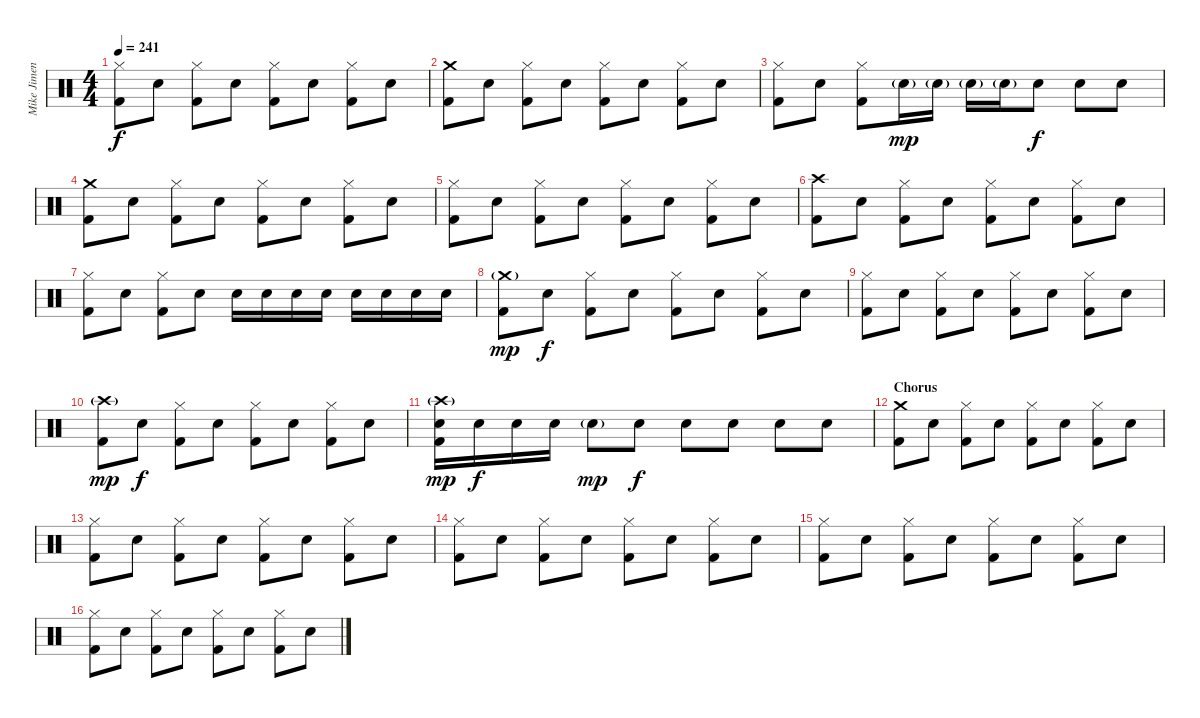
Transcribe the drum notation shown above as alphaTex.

\track ("Mike Jimenez" "Mike Jimen") {instrument percussion}
\staff {score}
\articulation defaults
\ts (4 4)
\tempo 241
\clef neutral
\ks c
("Hi-Hat (closed)" "Kick (hit) 2").8{dy f} "Electric Snare (hit)".8 ("Hi-Hat (closed)" "Kick (hit) 2").8 "Electric Snare (hit)".8 ("Hi-Hat (closed)" "Kick (hit) 2").8 "Electric Snare (hit)".8 ("Hi-Hat (closed)" "Kick (hit) 2").8 "Electric Snare (hit)".8 |
("Crash medium (hit)" "Kick (hit) 2").8 "Electric Snare (hit)".8 ("Hi-Hat (closed)" "Kick (hit) 2").8 "Electric Snare (hit)".8 ("Hi-Hat (closed)" "Kick (hit) 2").8 "Electric Snare (hit)".8 ("Hi-Hat (closed)" "Kick (hit) 2").8 "Electric Snare (hit)".8 |
("Hi-Hat (closed)" "Kick (hit) 2").8 "Electric Snare (hit)".8 ("Hi-Hat (closed)" "Kick (hit) 2").8 "Electric Snare (hit)"{g}.16{dy mp} "Electric Snare (hit)"{g}.16 "Electric Snare (hit)"{g}.16 "Electric Snare (hit)"{g}.16 "Electric Snare (hit)".8{dy f} "Electric Snare (hit)".8 "Electric Snare (hit)".8 |
("Crash medium (hit)" "Kick (hit) 2").8 "Electric Snare (hit)".8 ("Hi-Hat (closed)" "Kick (hit) 2").8 "Electric Snare (hit)".8 ("Hi-Hat (closed)" "Kick (hit) 2").8 "Electric Snare (hit)".8 ("Hi-Hat (closed)" "Kick (hit) 2").8 "Electric Snare (hit)".8 |
("Hi-Hat (closed)" "Kick (hit) 2").8 "Electric Snare (hit)".8 ("Hi-Hat (closed)" "Kick (hit) 2").8 "Electric Snare (hit)".8 ("Hi-Hat (closed)" "Kick (hit) 2").8 "Electric Snare (hit)".8 ("Hi-Hat (closed)" "Kick (hit) 2").8 "Electric Snare (hit)".8 |
("Crash high (hit)" "Kick (hit) 2").8 "Electric Snare (hit)".8 ("Hi-Hat (closed)" "Kick (hit) 2").8 "Electric Snare (hit)".8 ("Hi-Hat (closed)" "Kick (hit) 2").8 "Electric Snare (hit)".8 ("Hi-Hat (closed)" "Kick (hit) 2").8 "Electric Snare (hit)".8 |
("Hi-Hat (closed)" "Kick (hit) 2").8 "Electric Snare (hit)".8 ("Hi-Hat (closed)" "Kick (hit) 2").8 "Electric Snare (hit)".8 "Electric Snare (hit)".16 "Electric Snare (hit)".16 "Electric Snare (hit)".16 "Electric Snare (hit)".16 "Electric Snare (hit)".16 "Electric Snare (hit)".16 "Electric Snare (hit)".16 "Electric Snare (hit)".16 |
("Crash medium (hit)"{g} "Kick (hit) 2").8{dy mp} "Electric Snare (hit)".8{dy f} ("Hi-Hat (closed)" "Kick (hit) 2").8 "Electric Snare (hit)".8 ("Hi-Hat (closed)" "Kick (hit) 2").8 "Electric Snare (hit)".8 ("Hi-Hat (closed)" "Kick (hit) 2").8 "Electric Snare (hit)".8 |
("Hi-Hat (closed)" "Kick (hit) 2").8 "Electric Snare (hit)".8 ("Hi-Hat (closed)" "Kick (hit) 2").8 "Electric Snare (hit)".8 ("Hi-Hat (closed)" "Kick (hit) 2").8 "Electric Snare (hit)".8 ("Hi-Hat (closed)" "Kick (hit) 2").8 "Electric Snare (hit)".8 |
("Crash high (hit)"{g} "Kick (hit) 2").8{dy mp} "Electric Snare (hit)".8{dy f} ("Hi-Hat (closed)" "Kick (hit) 2").8 "Electric Snare (hit)".8 ("Hi-Hat (closed)" "Kick (hit) 2").8 "Electric Snare (hit)".8 ("Hi-Hat (closed)" "Kick (hit) 2").8 "Electric Snare (hit)".8 |
("Crash high (hit)"{g} "Electric Snare (hit)" "Kick (hit) 2").16{dy mp} "Electric Snare (hit)".16{dy f} "Electric Snare (hit)".16 "Electric Snare (hit)".16 "Electric Snare (hit)"{g}.8{dy mp} "Electric Snare (hit)".8{dy f} "Electric Snare (hit)".8 "Electric Snare (hit)".8 "Electric Snare (hit)".8 "Electric Snare (hit)".8 |
\section ("" "Chorus")
("Crash medium (hit)" "Kick (hit) 2").8 "Electric Snare (hit)".8 ("Hi-Hat (closed)" "Kick (hit) 2").8 "Electric Snare (hit)".8 ("Hi-Hat (closed)" "Kick (hit) 2").8 "Electric Snare (hit)".8 ("Hi-Hat (closed)" "Kick (hit) 2").8 "Electric Snare (hit)".8 |
("Hi-Hat (closed)" "Kick (hit) 2").8 "Electric Snare (hit)".8 ("Hi-Hat (closed)" "Kick (hit) 2").8 "Electric Snare (hit)".8 ("Hi-Hat (closed)" "Kick (hit) 2").8 "Electric Snare (hit)".8 ("Hi-Hat (closed)" "Kick (hit) 2").8 "Electric Snare (hit)".8 |
("Hi-Hat (closed)" "Kick (hit) 2").8 "Electric Snare (hit)".8 ("Hi-Hat (closed)" "Kick (hit) 2").8 "Electric Snare (hit)".8 ("Hi-Hat (closed)" "Kick (hit) 2").8 "Electric Snare (hit)".8 ("Hi-Hat (closed)" "Kick (hit) 2").8 "Electric Snare (hit)".8 |
("Hi-Hat (closed)" "Kick (hit) 2").8 "Electric Snare (hit)".8 ("Hi-Hat (closed)" "Kick (hit) 2").8 "Electric Snare (hit)".8 ("Hi-Hat (closed)" "Kick (hit) 2").8 "Electric Snare (hit)".8 ("Hi-Hat (closed)" "Kick (hit) 2").8 "Electric Snare (hit)".8 |
("Hi-Hat (closed)" "Kick (hit) 2").8 "Electric Snare (hit)".8 ("Hi-Hat (closed)" "Kick (hit) 2").8 "Electric Snare (hit)".8 ("Hi-Hat (closed)" "Kick (hit) 2").8 "Electric Snare (hit)".8 ("Hi-Hat (closed)" "Kick (hit) 2").8 "Electric Snare (hit)".8
